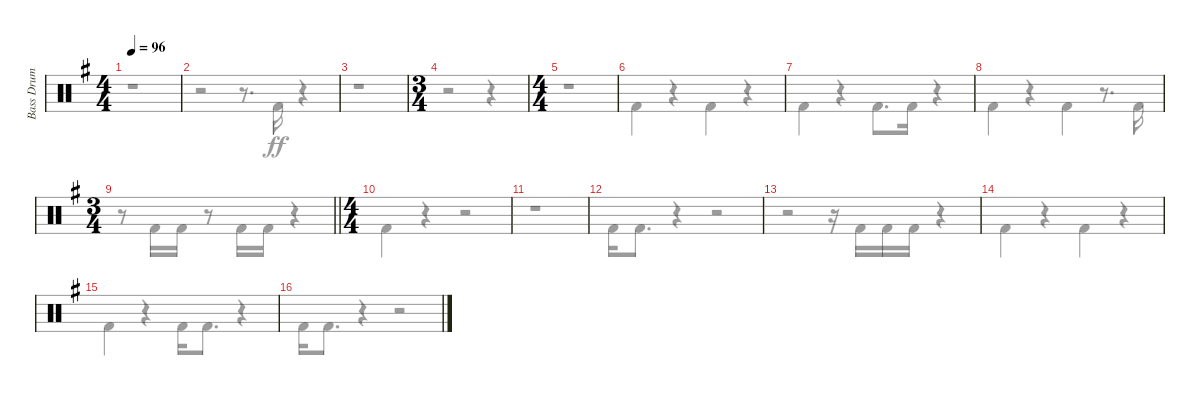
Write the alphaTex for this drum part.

\track ("Bass Drum" "Bass Drum") {instrument percussion}
\staff {score}
\articulation defaults
\voice
\ts (4 4)
\tempo 96
\clef neutral
\ks g
|
|
|
\ts (3 4)
|
\ts (4 4)
|
|
|
|
\ts (3 4)
\barLineRight lightlight
|
\ts (4 4)
|
|
|
|
|
|
\voice
\clef neutral
\ks g
r.1{dy ff} |
r.2 r.8{d} "Kick (hit) 2".16 r.4 |
r.1 |
r.2 r.4 |
r.1 |
"Kick (hit) 2".4 r.4 "Kick (hit) 2".4 r.4 |
"Kick (hit) 2".4 r.4 "Kick (hit) 2".8{d} "Kick (hit) 2".16 r.4 |
"Kick (hit) 2".4 r.4 "Kick (hit) 2".4 r.8{d} "Kick (hit) 2".16 |
\barLineRight lightlight
r.8 "Kick (hit) 2".16 "Kick (hit) 2".16 r.8 "Kick (hit) 2".16 "Kick (hit) 2".16 r.4 |
"Kick (hit) 2".4 r.4 r.2 |
r.1 |
"Kick (hit) 2".16 "Kick (hit) 2".8{d} r.4 r.2 |
r.2 r.16 "Kick (hit) 2".16 "Kick (hit) 2".16 "Kick (hit) 2".16 r.4 |
"Kick (hit) 2".4 r.4 "Kick (hit) 2".4 r.4 |
"Kick (hit) 2".4 r.4 "Kick (hit) 2".16 "Kick (hit) 2".8{d} r.4 |
"Kick (hit) 2".16 "Kick (hit) 2".8{d} r.4 r.2
